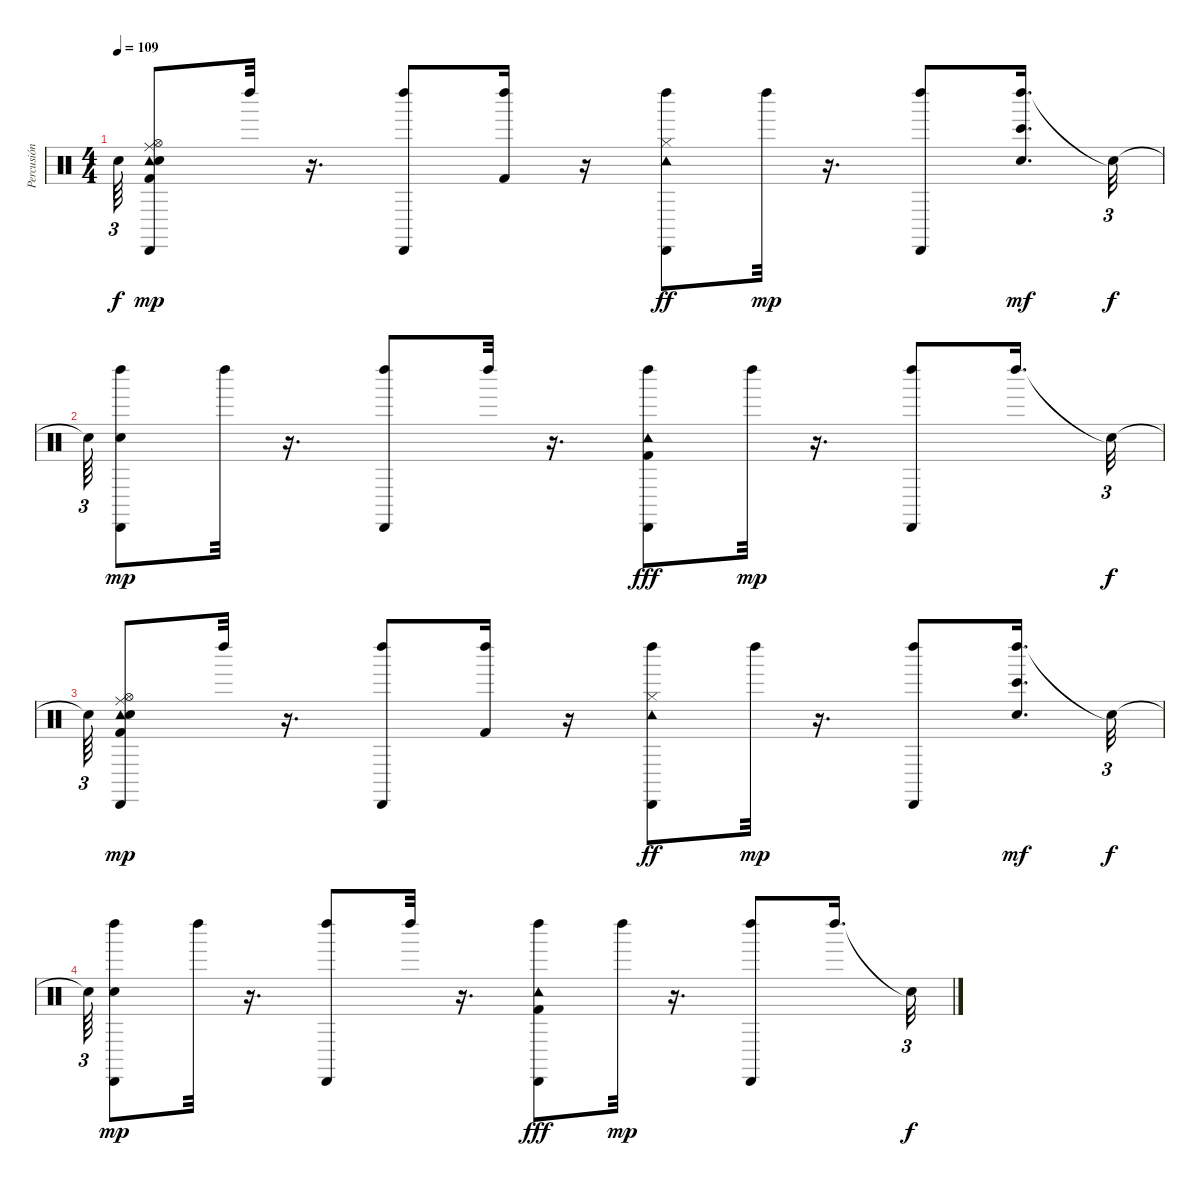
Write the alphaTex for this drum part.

\track ("Percusión" "Percusión") {instrument percussion}
\staff {score}
\articulation defaults
\ts (4 4)
\tempo 109
\clef neutral
\ks c "Snare (hit)"{t}.64{tu (3 2) dy f}
("Ride (middle)" "Kick (hit) 2" "Hi-Hat (open)" "Tambourine (hit)" "Snare (hit)" "Cabasa (hit)").8{dy mp} "Left Maraca (hit)".32 r.16{d} ("Cabasa (hit)" "Left Maraca (hit)").8 ("Kick (hit) 2" "Left Maraca (hit)").16 r.16 ("Left Maraca (hit)" "Cabasa (hit)" "Hi-Hat (closed)" "Tambourine (hit)").8{dy ff} "Left Maraca (hit)".32{dy mp} r.16{d} ("Cabasa (hit)" "Left Maraca (hit)").8 ("Left Maraca (hit)" "Snare (hit)" "Bongo High (hit)").16{d dy mf} "Snare (hit)"{t}.32{tu (3 2) dy f} |
"Snare (hit)"{t}.64{tu (3 2)} ("Left Maraca (hit)" "Snare (hit)" "Cabasa (hit)").8{dy mp} "Left Maraca (hit)".32 r.16{d} ("Left Maraca (hit)" "Cabasa (hit)").8 "Left Maraca (hit)".32 r.16{d} ("Cabasa (hit)" "Left Maraca (hit)" "Kick (hit) 2" "Tambourine (hit)").8{dy fff} "Left Maraca (hit)".32{dy mp} r.16{d} ("Cabasa (hit)" "Left Maraca (hit)").8 "Left Maraca (hit)".16{d} "Snare (hit)"{t}.32{tu (3 2) dy f} |
"Snare (hit)"{t}.64{tu (3 2)} ("Ride (middle)" "Kick (hit) 2" "Hi-Hat (open)" "Tambourine (hit)" "Snare (hit)" "Cabasa (hit)").8{dy mp} "Left Maraca (hit)".32 r.16{d} ("Cabasa (hit)" "Left Maraca (hit)").8 ("Kick (hit) 2" "Left Maraca (hit)").16 r.16 ("Left Maraca (hit)" "Cabasa (hit)" "Hi-Hat (closed)" "Tambourine (hit)").8{dy ff} "Left Maraca (hit)".32{dy mp} r.16{d} ("Cabasa (hit)" "Left Maraca (hit)").8 ("Left Maraca (hit)" "Snare (hit)" "Bongo High (hit)").16{d dy mf} "Snare (hit)"{t}.32{tu (3 2) dy f} |
"Snare (hit)"{t}.64{tu (3 2)} ("Left Maraca (hit)" "Snare (hit)" "Cabasa (hit)").8{dy mp} "Left Maraca (hit)".32 r.16{d} ("Left Maraca (hit)" "Cabasa (hit)").8 "Left Maraca (hit)".32 r.16{d} ("Cabasa (hit)" "Left Maraca (hit)" "Kick (hit) 2" "Tambourine (hit)").8{dy fff} "Left Maraca (hit)".32{dy mp} r.16{d} ("Cabasa (hit)" "Left Maraca (hit)").8 "Left Maraca (hit)".16{d} "Snare (hit)"{t}.32{tu (3 2) dy f}
